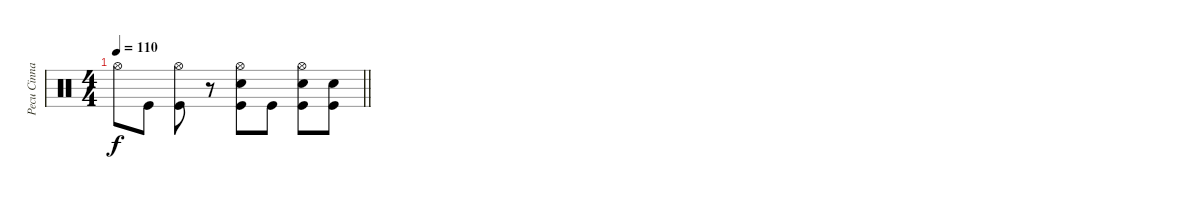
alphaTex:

\track ("Pecu Cinnari" "Pecu Cinna") {instrument percussion}
\staff {score}
\articulation defaults
\ts (4 4)
\tempo 110
\clef neutral
\barLineRight lightlight
\ks c "Hi-Hat (open)".8{dy f} "Kick (hit)".8
("Hi-Hat (open)" "Kick (hit)").8 r.8 ("Hi-Hat (open)" "Snare (hit) 2" "Kick (hit)").8 "Kick (hit)".8 ("Hi-Hat (open)" "Snare (hit) 2" "Kick (hit)").8 ("Snare (hit) 2" "Kick (hit)").8
